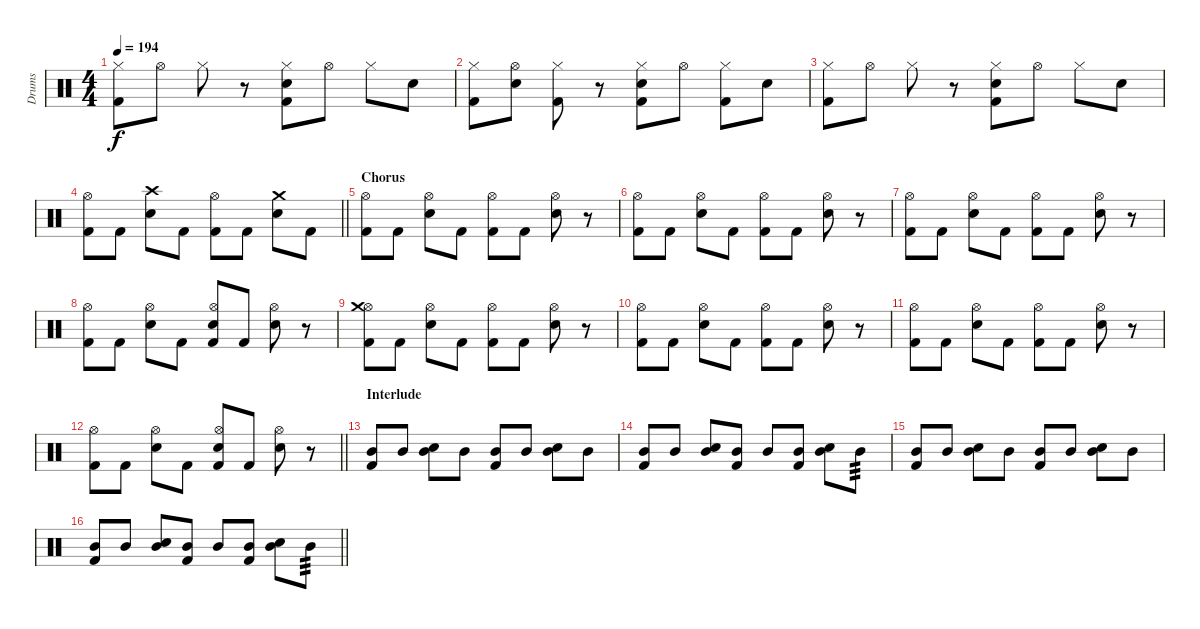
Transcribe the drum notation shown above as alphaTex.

\track ("Drums" "Drums") {instrument percussion}
\staff {score}
\articulation defaults
\ts (4 4)
\tempo 194
\clef neutral
\ks c
("Hi-Hat (closed)" "Kick (hit) 2").8{dy f} "Hi-Hat (open)".8 "Hi-Hat (closed)".8 r.8 ("Hi-Hat (closed)" "Snare (hit) 2" "Kick (hit) 2").8 "Hi-Hat (open)".8 "Hi-Hat (closed)".8 "Snare (hit) 2".8 |
("Hi-Hat (closed)" "Kick (hit) 2").8 ("Hi-Hat (open)" "Snare (hit) 2").8 ("Hi-Hat (closed)" "Kick (hit) 2").8 r.8 ("Hi-Hat (closed)" "Snare (hit) 2" "Kick (hit) 2").8 "Hi-Hat (open)".8 ("Hi-Hat (closed)" "Kick (hit) 2").8 "Snare (hit) 2".8 |
("Hi-Hat (closed)" "Kick (hit) 2").8 "Hi-Hat (open)".8 "Hi-Hat (closed)".8 r.8 ("Hi-Hat (closed)" "Snare (hit) 2" "Kick (hit) 2").8 "Hi-Hat (open)".8 "Hi-Hat (closed)".8 "Snare (hit) 2".8 |
\barLineRight lightlight
("Hi-Hat (open)" "Kick (hit) 2").8 "Kick (hit) 2".8 ("Crash high (hit)" "Snare (hit) 2").8 "Kick (hit) 2".8 ("Hi-Hat (open)" "Kick (hit) 2").8 "Kick (hit) 2".8 ("Crash medium (hit)" "Snare (hit) 2").8 "Kick (hit) 2".8 |
\section ("" "Chorus")
("Hi-Hat (open)" "Kick (hit) 2").8 "Kick (hit) 2".8 ("Hi-Hat (open)" "Snare (hit) 2").8 "Kick (hit) 2".8 ("Hi-Hat (open)" "Kick (hit) 2").8 "Kick (hit) 2".8 ("Hi-Hat (open)" "Snare (hit) 2").8 r.8 |
("Hi-Hat (open)" "Kick (hit) 2").8 "Kick (hit) 2".8 ("Hi-Hat (open)" "Snare (hit) 2").8 "Kick (hit) 2".8 ("Hi-Hat (open)" "Kick (hit) 2").8 "Kick (hit) 2".8 ("Hi-Hat (open)" "Snare (hit) 2").8 r.8 |
("Hi-Hat (open)" "Kick (hit) 2").8 "Kick (hit) 2".8 ("Hi-Hat (open)" "Snare (hit) 2").8 "Kick (hit) 2".8 ("Hi-Hat (open)" "Kick (hit) 2").8 "Kick (hit) 2".8 ("Hi-Hat (open)" "Snare (hit) 2").8 r.8 |
("Hi-Hat (open)" "Kick (hit) 2").8 "Kick (hit) 2".8 ("Hi-Hat (open)" "Snare (hit) 2").8 "Kick (hit) 2".8 ("Hi-Hat (open)" "Snare (hit) 2" "Kick (hit) 2").8 "Kick (hit) 2".8 ("Hi-Hat (open)" "Snare (hit) 2").8 r.8 |
("Hi-Hat (open)" "Crash medium (hit)" "Kick (hit) 2").8 "Kick (hit) 2".8 ("Hi-Hat (open)" "Snare (hit) 2").8 "Kick (hit) 2".8 ("Hi-Hat (open)" "Kick (hit) 2").8 "Kick (hit) 2".8 ("Hi-Hat (open)" "Snare (hit) 2").8 r.8 |
("Hi-Hat (open)" "Kick (hit) 2").8 "Kick (hit) 2".8 ("Hi-Hat (open)" "Snare (hit) 2").8 "Kick (hit) 2".8 ("Hi-Hat (open)" "Kick (hit) 2").8 "Kick (hit) 2".8 ("Hi-Hat (open)" "Snare (hit) 2").8 r.8 |
("Hi-Hat (open)" "Kick (hit) 2").8 "Kick (hit) 2".8 ("Hi-Hat (open)" "Snare (hit) 2").8 "Kick (hit) 2".8 ("Hi-Hat (open)" "Kick (hit) 2").8 "Kick (hit) 2".8 ("Hi-Hat (open)" "Snare (hit) 2").8 r.8 |
\barLineRight lightlight
("Hi-Hat (open)" "Kick (hit) 2").8 "Kick (hit) 2".8 ("Hi-Hat (open)" "Snare (hit) 2").8 "Kick (hit) 2".8 ("Hi-Hat (open)" "Snare (hit) 2" "Kick (hit) 2").8 "Kick (hit) 2".8 ("Hi-Hat (open)" "Snare (hit) 2").8 r.8 |
\section ("" "Interlude")
("Mid Tom (hit)" "Kick (hit) 2").8 "Mid Tom (hit)".8 ("Mid Tom (hit)" "Snare (hit) 2").8 "Mid Tom (hit)".8 ("Mid Tom (hit)" "Kick (hit) 2").8 "Mid Tom (hit)".8 ("Mid Tom (hit)" "Snare (hit) 2").8 "Mid Tom (hit)".8 |
("Mid Tom (hit)" "Kick (hit) 2").8 "Mid Tom (hit)".8 ("Mid Tom (hit)" "Snare (hit) 2").8 ("Mid Tom (hit)" "Kick (hit) 2").8 "Mid Tom (hit)".8 ("Mid Tom (hit)" "Kick (hit) 2").8 ("Mid Tom (hit)" "Snare (hit) 2").8 "Mid Tom (hit)".8{tp 3} |
("Mid Tom (hit)" "Kick (hit) 2").8 "Mid Tom (hit)".8 ("Mid Tom (hit)" "Snare (hit) 2").8 "Mid Tom (hit)".8 ("Mid Tom (hit)" "Kick (hit) 2").8 "Mid Tom (hit)".8 ("Mid Tom (hit)" "Snare (hit) 2").8 "Mid Tom (hit)".8 |
\barLineRight lightlight
("Mid Tom (hit)" "Kick (hit) 2").8 "Mid Tom (hit)".8 ("Mid Tom (hit)" "Snare (hit) 2").8 ("Mid Tom (hit)" "Kick (hit) 2").8 "Mid Tom (hit)".8 ("Mid Tom (hit)" "Kick (hit) 2").8 ("Mid Tom (hit)" "Snare (hit) 2").8 "Mid Tom (hit)".8{tp 3}
